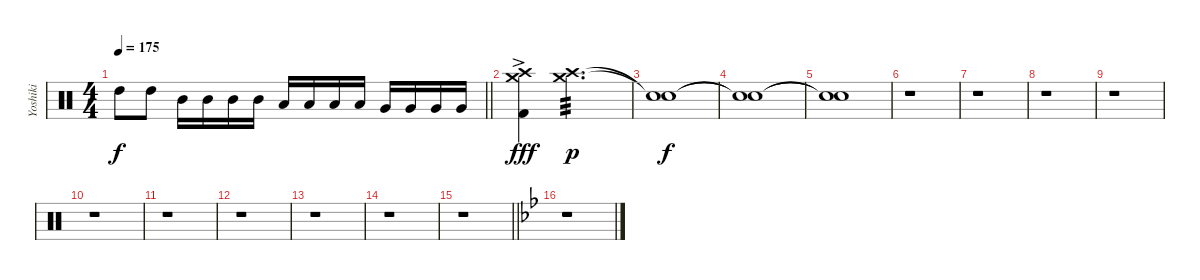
\track ("Yoshiki" "Yoshiki") {instrument percussion}
\staff {score}
\articulation defaults
\ts (4 4)
\tempo 175
\clef neutral
\barLineRight lightlight
\ks c "High Tom (hit)".8{dy f} "High Tom (hit)".8 "Mid Tom (hit)".16 "Mid Tom (hit)".16 "Mid Tom (hit)".16 "Mid Tom (hit)".16 "Low Tom (hit)".16 "Low Tom (hit)".16 "Low Tom (hit)".16 "Low Tom (hit)".16 "Very Low Tom (hit)".16 "Very Low Tom (hit)".16 "Very Low Tom (hit)".16 "Very Low Tom (hit)".16
|
("Crash high (hit)"{ac} "Crash medium (hit)"{ac} "Kick (hit) 2"{ac}).4{dy fff} ("Crash high (hit)" "Crash medium (hit)").2{d tp 3 dy p} |
("Snare (hit)"{t} "Snare (hit)"{t}).1{dy f} |
("Snare (hit)"{t} "Snare (hit)"{t}).1 |
("Snare (hit)"{t} "Snare (hit)"{t}).1 |
r.1 |
r.1 |
r.1 |
r.1 |
r.1 |
r.1 |
r.1 |
r.1 |
r.1 |
\barLineRight lightlight
r.1 |
\ks bb
r.1
